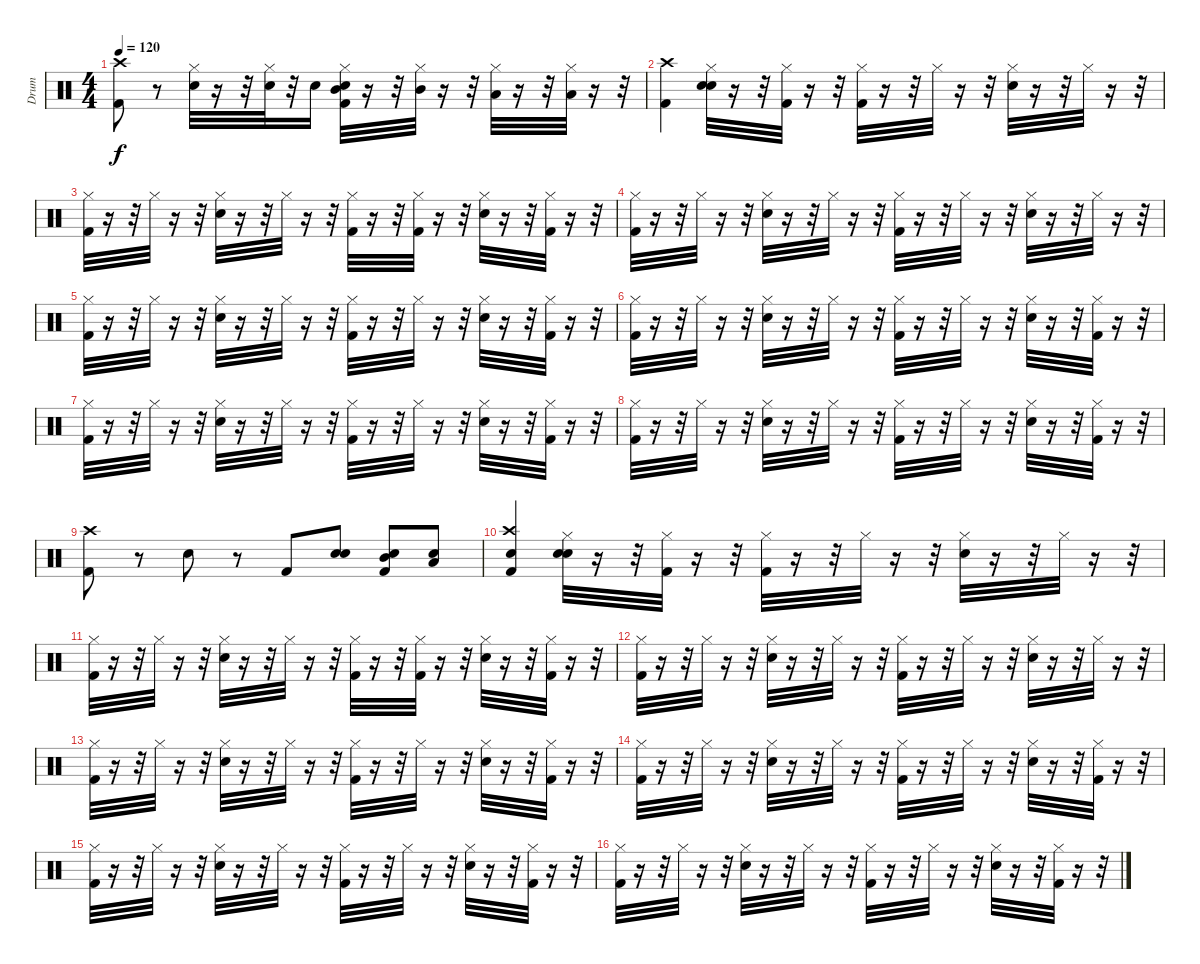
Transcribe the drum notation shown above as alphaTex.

\track ("Drum" "Drum") {instrument percussion}
\staff {score}
\articulation defaults
\ts (4 4)
\tempo 120
\clef neutral
\ks c
("Kick (hit) 2" "Crash high (hit)").8{dy f} r.8 ("Snare (hit) 2" "Hi-Hat (closed)").32 r.16 r.32 ("Snare (hit) 2" "Hi-Hat (closed)").32 r.32 "Snare (hit) 2".16 ("Snare (hit)" "Kick (hit) 2" "Hi-Hat (closed)" "Mid Tom (hit)").32 r.16 r.32 ("Hi-Hat (closed)" "Mid Tom (hit)").32 r.16 r.32 ("Hi-Hat (closed)" "Low Tom (hit)").32 r.16 r.32 ("Hi-Hat (closed)" "Low Tom (hit)").32 r.16 r.32 |
("Kick (hit) 2" "Crash high (hit)").4 ("Snare (hit)" "Snare (hit) 2" "Hi-Hat (closed)").32 r.16 r.32 ("Kick (hit) 2" "Hi-Hat (closed)").32 r.16 r.32 ("Kick (hit) 2" "Hi-Hat (closed)").32 r.16 r.32 "Hi-Hat (closed)".32 r.16 r.32 ("Snare (hit) 2" "Hi-Hat (closed)").32 r.16 r.32 "Hi-Hat (closed)".32 r.16 r.32 |
("Kick (hit) 2" "Hi-Hat (closed)").32 r.16 r.32 "Hi-Hat (closed)".32 r.16 r.32 ("Snare (hit) 2" "Hi-Hat (closed)").32 r.16 r.32 "Hi-Hat (closed)".32 r.16 r.32 ("Kick (hit) 2" "Hi-Hat (closed)").32 r.16 r.32 ("Kick (hit) 2" "Hi-Hat (closed)").32 r.16 r.32 ("Snare (hit) 2" "Hi-Hat (closed)").32 r.16 r.32 ("Kick (hit) 2" "Hi-Hat (closed)").32 r.16 r.32 |
("Kick (hit) 2" "Hi-Hat (closed)").32 r.16 r.32 "Hi-Hat (closed)".32 r.16 r.32 ("Snare (hit) 2" "Hi-Hat (closed)").32 r.16 r.32 "Hi-Hat (closed)".32 r.16 r.32 ("Kick (hit) 2" "Hi-Hat (closed)").32 r.16 r.32 "Hi-Hat (closed)".32 r.16 r.32 ("Snare (hit) 2" "Hi-Hat (closed)").32 r.16 r.32 "Hi-Hat (closed)".32 r.16 r.32 |
("Kick (hit) 2" "Hi-Hat (closed)").32 r.16 r.32 "Hi-Hat (closed)".32 r.16 r.32 ("Snare (hit) 2" "Hi-Hat (closed)").32 r.16 r.32 "Hi-Hat (closed)".32 r.16 r.32 ("Kick (hit) 2" "Hi-Hat (closed)").32 r.16 r.32 "Hi-Hat (closed)".32 r.16 r.32 ("Snare (hit) 2" "Hi-Hat (closed)").32 r.16 r.32 ("Kick (hit) 2" "Hi-Hat (closed)").32 r.16 r.32 |
("Kick (hit) 2" "Hi-Hat (closed)").32 r.16 r.32 "Hi-Hat (closed)".32 r.16 r.32 ("Snare (hit) 2" "Hi-Hat (closed)").32 r.16 r.32 "Hi-Hat (closed)".32 r.16 r.32 ("Kick (hit) 2" "Hi-Hat (closed)").32 r.16 r.32 "Hi-Hat (closed)".32 r.16 r.32 ("Snare (hit) 2" "Hi-Hat (closed)").32 r.16 r.32 ("Kick (hit) 2" "Hi-Hat (closed)").32 r.16 r.32 |
("Kick (hit) 2" "Hi-Hat (closed)").32 r.16 r.32 "Hi-Hat (closed)".32 r.16 r.32 ("Snare (hit) 2" "Hi-Hat (closed)").32 r.16 r.32 "Hi-Hat (closed)".32 r.16 r.32 ("Kick (hit) 2" "Hi-Hat (closed)").32 r.16 r.32 "Hi-Hat (closed)".32 r.16 r.32 ("Snare (hit) 2" "Hi-Hat (closed)").32 r.16 r.32 ("Kick (hit) 2" "Hi-Hat (closed)").32 r.16 r.32 |
("Kick (hit) 2" "Hi-Hat (closed)").32 r.16 r.32 "Hi-Hat (closed)".32 r.16 r.32 ("Snare (hit) 2" "Hi-Hat (closed)").32 r.16 r.32 "Hi-Hat (closed)".32 r.16 r.32 ("Kick (hit) 2" "Hi-Hat (closed)").32 r.16 r.32 "Hi-Hat (closed)".32 r.16 r.32 ("Snare (hit) 2" "Hi-Hat (closed)").32 r.16 r.32 ("Kick (hit) 2" "Hi-Hat (closed)").32 r.16 r.32 |
("Kick (hit) 2" "Crash high (hit)").8 r.8 "Snare (hit) 2".8 r.8 "Kick (hit) 2".8 ("Snare (hit)" "Snare (hit) 2").8 ("Snare (hit)" "Kick (hit) 2" "Mid Tom (hit)").8 ("Snare (hit)" "Low Tom (hit)").8 |
("Snare (hit)" "Kick (hit) 2" "Crash high (hit)").4 ("Snare (hit)" "Snare (hit) 2" "Hi-Hat (closed)").32 r.16 r.32 ("Kick (hit) 2" "Hi-Hat (closed)").32 r.16 r.32 ("Kick (hit) 2" "Hi-Hat (closed)").32 r.16 r.32 "Hi-Hat (closed)".32 r.16 r.32 ("Snare (hit) 2" "Hi-Hat (closed)").32 r.16 r.32 "Hi-Hat (closed)".32 r.16 r.32 |
("Kick (hit) 2" "Hi-Hat (closed)").32 r.16 r.32 "Hi-Hat (closed)".32 r.16 r.32 ("Snare (hit) 2" "Hi-Hat (closed)").32 r.16 r.32 "Hi-Hat (closed)".32 r.16 r.32 ("Kick (hit) 2" "Hi-Hat (closed)").32 r.16 r.32 ("Kick (hit) 2" "Hi-Hat (closed)").32 r.16 r.32 ("Snare (hit) 2" "Hi-Hat (closed)").32 r.16 r.32 ("Kick (hit) 2" "Hi-Hat (closed)").32 r.16 r.32 |
("Kick (hit) 2" "Hi-Hat (closed)").32 r.16 r.32 "Hi-Hat (closed)".32 r.16 r.32 ("Snare (hit) 2" "Hi-Hat (closed)").32 r.16 r.32 "Hi-Hat (closed)".32 r.16 r.32 ("Kick (hit) 2" "Hi-Hat (closed)").32 r.16 r.32 "Hi-Hat (closed)".32 r.16 r.32 ("Snare (hit) 2" "Hi-Hat (closed)").32 r.16 r.32 "Hi-Hat (closed)".32 r.16 r.32 |
("Kick (hit) 2" "Hi-Hat (closed)").32 r.16 r.32 "Hi-Hat (closed)".32 r.16 r.32 ("Snare (hit) 2" "Hi-Hat (closed)").32 r.16 r.32 "Hi-Hat (closed)".32 r.16 r.32 ("Kick (hit) 2" "Hi-Hat (closed)").32 r.16 r.32 "Hi-Hat (closed)".32 r.16 r.32 ("Snare (hit) 2" "Hi-Hat (closed)").32 r.16 r.32 ("Kick (hit) 2" "Hi-Hat (closed)").32 r.16 r.32 |
("Kick (hit) 2" "Hi-Hat (closed)").32 r.16 r.32 "Hi-Hat (closed)".32 r.16 r.32 ("Snare (hit) 2" "Hi-Hat (closed)").32 r.16 r.32 "Hi-Hat (closed)".32 r.16 r.32 ("Kick (hit) 2" "Hi-Hat (closed)").32 r.16 r.32 "Hi-Hat (closed)".32 r.16 r.32 ("Snare (hit) 2" "Hi-Hat (closed)").32 r.16 r.32 ("Kick (hit) 2" "Hi-Hat (closed)").32 r.16 r.32 |
("Kick (hit) 2" "Hi-Hat (closed)").32 r.16 r.32 "Hi-Hat (closed)".32 r.16 r.32 ("Snare (hit) 2" "Hi-Hat (closed)").32 r.16 r.32 "Hi-Hat (closed)".32 r.16 r.32 ("Kick (hit) 2" "Hi-Hat (closed)").32 r.16 r.32 "Hi-Hat (closed)".32 r.16 r.32 ("Snare (hit) 2" "Hi-Hat (closed)").32 r.16 r.32 ("Kick (hit) 2" "Hi-Hat (closed)").32 r.16 r.32 |
("Kick (hit) 2" "Hi-Hat (closed)").32 r.16 r.32 "Hi-Hat (closed)".32 r.16 r.32 ("Snare (hit) 2" "Hi-Hat (closed)").32 r.16 r.32 "Hi-Hat (closed)".32 r.16 r.32 ("Kick (hit) 2" "Hi-Hat (closed)").32 r.16 r.32 "Hi-Hat (closed)".32 r.16 r.32 ("Snare (hit) 2" "Hi-Hat (closed)").32 r.16 r.32 ("Kick (hit) 2" "Hi-Hat (closed)").32 r.16 r.32
